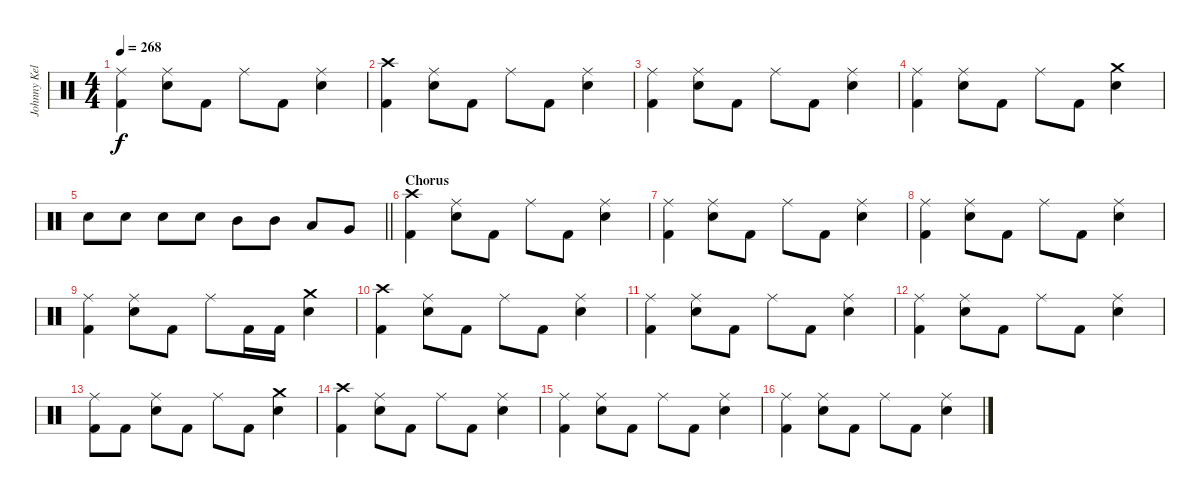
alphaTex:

\track ("Johnny Kelly" "Johnny Kel") {instrument percussion}
\staff {score}
\articulation defaults
\ts (4 4)
\tempo 268
\clef neutral
\ks c
("Ride (middle)" "Kick (hit) 2").4{dy f} ("Ride (middle)" "Electric Snare (hit)").8 "Kick (hit) 2".8 "Ride (middle)".8 "Kick (hit) 2".8 ("Ride (middle)" "Electric Snare (hit)").4 |
("Crash high (hit)" "Kick (hit) 2").4 ("Ride (middle)" "Electric Snare (hit)").8 "Kick (hit) 2".8 "Ride (middle)".8 "Kick (hit) 2".8 ("Ride (middle)" "Electric Snare (hit)").4 |
("Ride (middle)" "Kick (hit) 2").4 ("Ride (middle)" "Electric Snare (hit)").8 "Kick (hit) 2".8 "Ride (middle)".8 "Kick (hit) 2".8 ("Ride (middle)" "Electric Snare (hit)").4 |
("Ride (middle)" "Kick (hit) 2").4 ("Ride (middle)" "Electric Snare (hit)").8 "Kick (hit) 2".8 "Ride (middle)".8 "Kick (hit) 2".8 ("Crash medium (hit)" "Electric Snare (hit)").4 |
\barLineRight lightlight "Electric Snare (hit)".8 "Electric Snare (hit)".8 "Electric Snare (hit)".8 "Electric Snare (hit)".8 "Mid Tom (hit)".8 "Mid Tom (hit)".8 "Low Tom (hit)".8 "Very Low Tom (hit)".8
|
\section ("" "Chorus")
("Crash high (hit)" "Kick (hit) 2").4 ("Ride (middle)" "Electric Snare (hit)").8 "Kick (hit) 2".8 "Ride (middle)".8 "Kick (hit) 2".8 ("Ride (middle)" "Electric Snare (hit)").4 |
("Ride (middle)" "Kick (hit) 2").4 ("Ride (middle)" "Electric Snare (hit)").8 "Kick (hit) 2".8 "Ride (middle)".8 "Kick (hit) 2".8 ("Ride (middle)" "Electric Snare (hit)").4 |
("Ride (middle)" "Kick (hit) 2").4 ("Ride (middle)" "Electric Snare (hit)").8 "Kick (hit) 2".8 "Ride (middle)".8 "Kick (hit) 2".8 ("Ride (middle)" "Electric Snare (hit)").4 |
("Ride (middle)" "Kick (hit) 2").4 ("Ride (middle)" "Electric Snare (hit)").8 "Kick (hit) 2".8 "Ride (middle)".8 "Kick (hit) 2".16 "Kick (hit) 2".16 ("Crash medium (hit)" "Electric Snare (hit)").4 |
("Crash high (hit)" "Kick (hit) 2").4 ("Ride (middle)" "Electric Snare (hit)").8 "Kick (hit) 2".8 "Ride (middle)".8 "Kick (hit) 2".8 ("Ride (middle)" "Electric Snare (hit)").4 |
("Ride (middle)" "Kick (hit) 2").4 ("Ride (middle)" "Electric Snare (hit)").8 "Kick (hit) 2".8 "Ride (middle)".8 "Kick (hit) 2".8 ("Ride (middle)" "Electric Snare (hit)").4 |
("Ride (middle)" "Kick (hit) 2").4 ("Ride (middle)" "Electric Snare (hit)").8 "Kick (hit) 2".8 "Ride (middle)".8 "Kick (hit) 2".8 ("Ride (middle)" "Electric Snare (hit)").4 |
("Ride (middle)" "Kick (hit) 2").8 "Kick (hit) 2".8 ("Ride (middle)" "Electric Snare (hit)").8 "Kick (hit) 2".8 "Ride (middle)".8 "Kick (hit) 2".8 ("Crash medium (hit)" "Electric Snare (hit)").4 |
("Crash high (hit)" "Kick (hit) 2").4 ("Ride (middle)" "Electric Snare (hit)").8 "Kick (hit) 2".8 "Ride (middle)".8 "Kick (hit) 2".8 ("Ride (middle)" "Electric Snare (hit)").4 |
("Ride (middle)" "Kick (hit) 2").4 ("Ride (middle)" "Electric Snare (hit)").8 "Kick (hit) 2".8 "Ride (middle)".8 "Kick (hit) 2".8 ("Ride (middle)" "Electric Snare (hit)").4 |
("Ride (middle)" "Kick (hit) 2").4 ("Ride (middle)" "Electric Snare (hit)").8 "Kick (hit) 2".8 "Ride (middle)".8 "Kick (hit) 2".8 ("Ride (middle)" "Electric Snare (hit)").4
